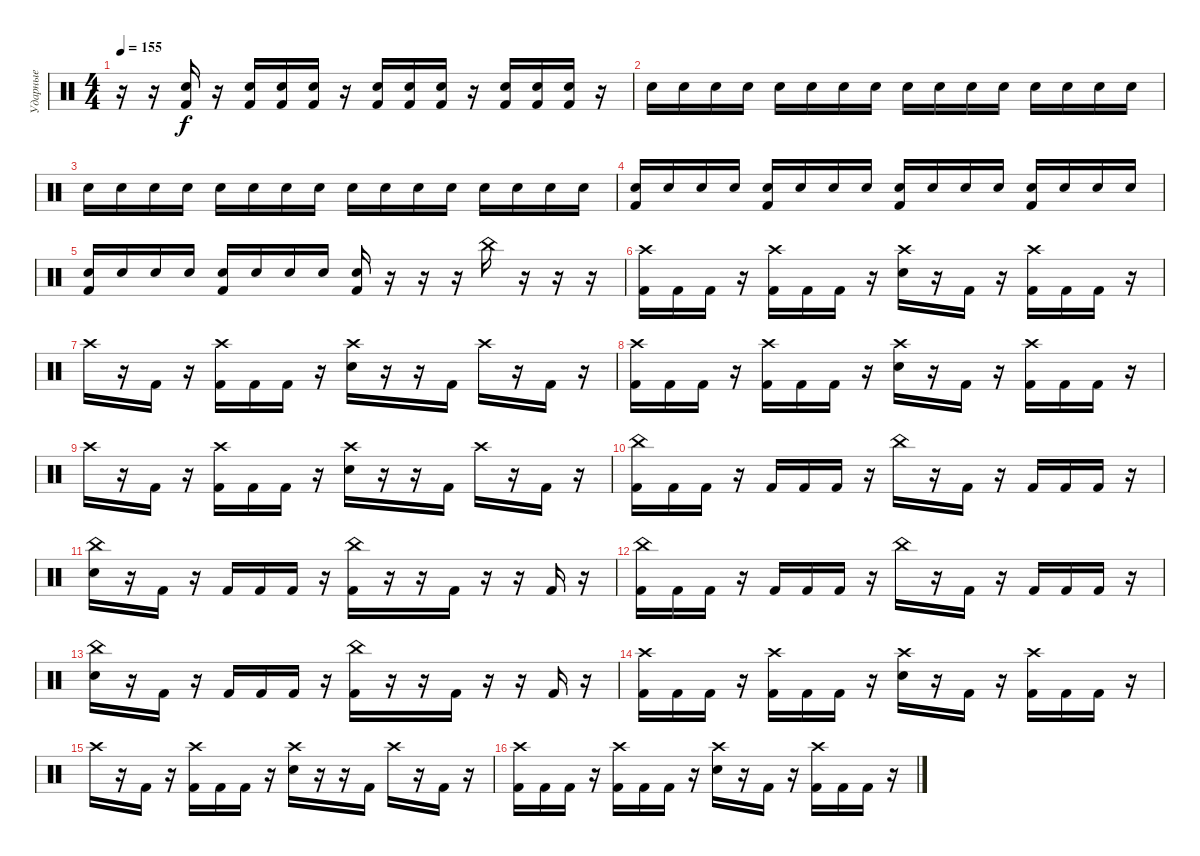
\track ("Ударные" "Ударные") {instrument percussion}
\staff {score}
\articulation defaults
\ts (4 4)
\tempo 155
\clef neutral
\ks c
r.16{dy f} r.16 ("Snare (hit) 2" "Kick (hit) 2").16 r.16 ("Snare (hit) 2" "Kick (hit) 2").16 ("Snare (hit) 2" "Kick (hit) 2").16 ("Snare (hit) 2" "Kick (hit) 2").16 r.16 ("Snare (hit) 2" "Kick (hit) 2").16 ("Snare (hit) 2" "Kick (hit) 2").16 ("Snare (hit) 2" "Kick (hit) 2").16 r.16 ("Snare (hit) 2" "Kick (hit) 2").16 ("Snare (hit) 2" "Kick (hit) 2").16 ("Snare (hit) 2" "Kick (hit) 2").16 r.16 |
"Snare (hit) 2".16 "Snare (hit) 2".16 "Snare (hit) 2".16 "Snare (hit) 2".16 "Snare (hit) 2".16 "Snare (hit) 2".16 "Snare (hit) 2".16 "Snare (hit) 2".16 "Snare (hit) 2".16 "Snare (hit) 2".16 "Snare (hit) 2".16 "Snare (hit) 2".16 "Snare (hit) 2".16 "Snare (hit) 2".16 "Snare (hit) 2".16 "Snare (hit) 2".16 |
"Snare (hit) 2".16 "Snare (hit) 2".16 "Snare (hit) 2".16 "Snare (hit) 2".16 "Snare (hit) 2".16 "Snare (hit) 2".16 "Snare (hit) 2".16 "Snare (hit) 2".16 "Snare (hit) 2".16 "Snare (hit) 2".16 "Snare (hit) 2".16 "Snare (hit) 2".16 "Snare (hit) 2".16 "Snare (hit) 2".16 "Snare (hit) 2".16 "Snare (hit) 2".16 |
("Snare (hit) 2" "Kick (hit) 2").16 "Snare (hit) 2".16 "Snare (hit) 2".16 "Snare (hit) 2".16 ("Snare (hit) 2" "Kick (hit) 2").16 "Snare (hit) 2".16 "Snare (hit) 2".16 "Snare (hit) 2".16 ("Snare (hit) 2" "Kick (hit) 2").16 "Snare (hit) 2".16 "Snare (hit) 2".16 "Snare (hit) 2".16 ("Snare (hit) 2" "Kick (hit) 2").16 "Snare (hit) 2".16 "Snare (hit) 2".16 "Snare (hit) 2".16 |
("Snare (hit) 2" "Kick (hit) 2").16 "Snare (hit) 2".16 "Snare (hit) 2".16 "Snare (hit) 2".16 ("Snare (hit) 2" "Kick (hit) 2").16 "Snare (hit) 2".16 "Snare (hit) 2".16 "Snare (hit) 2".16 ("Snare (hit) 2" "Kick (hit) 2").16 r.16 r.16 r.16 "China (hit)".16 r.16 r.16 r.16 |
("Crash high (hit)" "Kick (hit) 2").16 "Kick (hit) 2".16 "Kick (hit) 2".16 r.16 ("Crash high (hit)" "Kick (hit) 2").16 "Kick (hit) 2".16 "Kick (hit) 2".16 r.16 ("Crash high (hit)" "Snare (hit) 2").16 r.16 "Kick (hit) 2".16 r.16 ("Crash high (hit)" "Kick (hit) 2").16 "Kick (hit) 2".16 "Kick (hit) 2".16 r.16 |
"Crash high (hit)".16 r.16 "Kick (hit) 2".16 r.16 ("Crash high (hit)" "Kick (hit) 2").16 "Kick (hit) 2".16 "Kick (hit) 2".16 r.16 ("Crash high (hit)" "Snare (hit) 2").16 r.16 r.16 "Kick (hit) 2".16 "Crash high (hit)".16 r.16 "Kick (hit) 2".16 r.16 |
("Crash high (hit)" "Kick (hit) 2").16 "Kick (hit) 2".16 "Kick (hit) 2".16 r.16 ("Crash high (hit)" "Kick (hit) 2").16 "Kick (hit) 2".16 "Kick (hit) 2".16 r.16 ("Crash high (hit)" "Snare (hit) 2").16 r.16 "Kick (hit) 2".16 r.16 ("Crash high (hit)" "Kick (hit) 2").16 "Kick (hit) 2".16 "Kick (hit) 2".16 r.16 |
"Crash high (hit)".16 r.16 "Kick (hit) 2".16 r.16 ("Crash high (hit)" "Kick (hit) 2").16 "Kick (hit) 2".16 "Kick (hit) 2".16 r.16 ("Crash high (hit)" "Snare (hit) 2").16 r.16 r.16 "Kick (hit) 2".16 "Crash high (hit)".16 r.16 "Kick (hit) 2".16 r.16 |
("China (hit)" "Kick (hit) 2").16 "Kick (hit) 2".16 "Kick (hit) 2".16 r.16 "Kick (hit) 2".16 "Kick (hit) 2".16 "Kick (hit) 2".16 r.16 "China (hit)".16 r.16 "Kick (hit) 2".16 r.16 "Kick (hit) 2".16 "Kick (hit) 2".16 "Kick (hit) 2".16 r.16 |
("China (hit)" "Snare (hit) 2").16 r.16 "Kick (hit) 2".16 r.16 "Kick (hit) 2".16 "Kick (hit) 2".16 "Kick (hit) 2".16 r.16 ("China (hit)" "Kick (hit) 2").16 r.16 r.16 "Kick (hit) 2".16 r.16 r.16 "Kick (hit) 2".16 r.16 |
("China (hit)" "Kick (hit) 2").16 "Kick (hit) 2".16 "Kick (hit) 2".16 r.16 "Kick (hit) 2".16 "Kick (hit) 2".16 "Kick (hit) 2".16 r.16 "China (hit)".16 r.16 "Kick (hit) 2".16 r.16 "Kick (hit) 2".16 "Kick (hit) 2".16 "Kick (hit) 2".16 r.16 |
("China (hit)" "Snare (hit) 2").16 r.16 "Kick (hit) 2".16 r.16 "Kick (hit) 2".16 "Kick (hit) 2".16 "Kick (hit) 2".16 r.16 ("China (hit)" "Kick (hit) 2").16 r.16 r.16 "Kick (hit) 2".16 r.16 r.16 "Kick (hit) 2".16 r.16 |
("Crash high (hit)" "Kick (hit) 2").16 "Kick (hit) 2".16 "Kick (hit) 2".16 r.16 ("Crash high (hit)" "Kick (hit) 2").16 "Kick (hit) 2".16 "Kick (hit) 2".16 r.16 ("Crash high (hit)" "Snare (hit) 2").16 r.16 "Kick (hit) 2".16 r.16 ("Crash high (hit)" "Kick (hit) 2").16 "Kick (hit) 2".16 "Kick (hit) 2".16 r.16 |
"Crash high (hit)".16 r.16 "Kick (hit) 2".16 r.16 ("Crash high (hit)" "Kick (hit) 2").16 "Kick (hit) 2".16 "Kick (hit) 2".16 r.16 ("Crash high (hit)" "Snare (hit) 2").16 r.16 r.16 "Kick (hit) 2".16 "Crash high (hit)".16 r.16 "Kick (hit) 2".16 r.16 |
("Crash high (hit)" "Kick (hit) 2").16 "Kick (hit) 2".16 "Kick (hit) 2".16 r.16 ("Crash high (hit)" "Kick (hit) 2").16 "Kick (hit) 2".16 "Kick (hit) 2".16 r.16 ("Crash high (hit)" "Snare (hit) 2").16 r.16 "Kick (hit) 2".16 r.16 ("Crash high (hit)" "Kick (hit) 2").16 "Kick (hit) 2".16 "Kick (hit) 2".16 r.16
